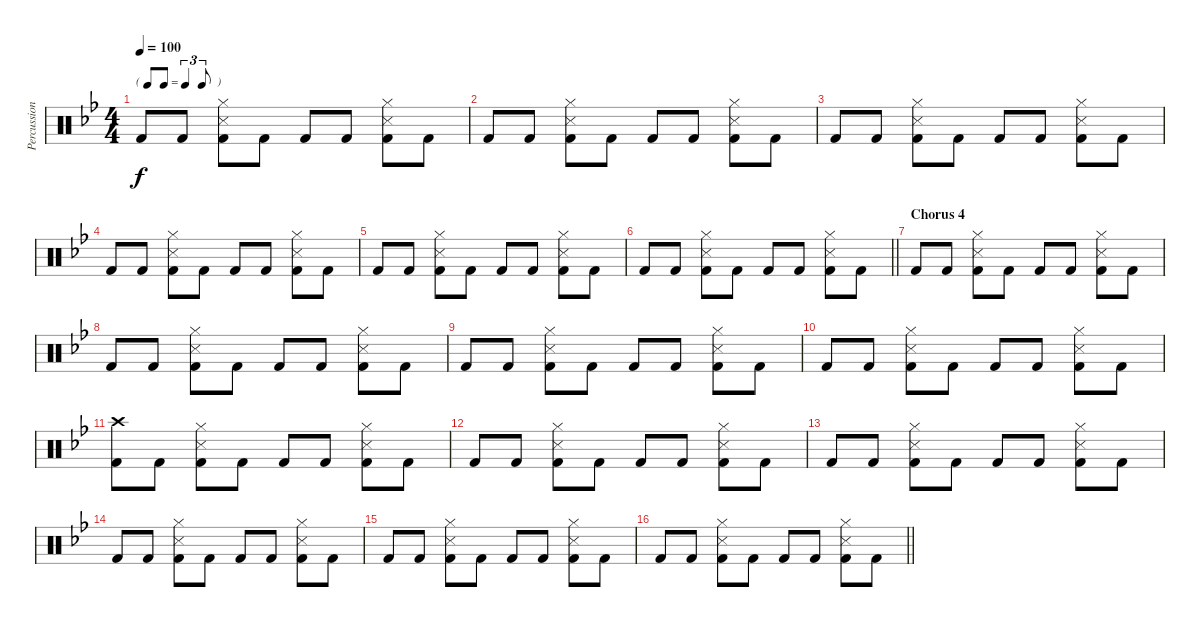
\track ("Percussion" "Percussion") {instrument percussion}
\staff {score}
\articulation defaults
\ts (4 4)
\tf triplet8th
\tempo 100
\clef neutral
\ks bb "Kick (hit) 2".8{dy f} "Kick (hit) 2".8
("Snare (side stick) 3" "Hi-Hat (closed)" "Kick (hit) 2").8 "Kick (hit) 2".8 "Kick (hit) 2".8 "Kick (hit) 2".8 ("Snare (side stick) 3" "Hi-Hat (closed)" "Kick (hit) 2").8 "Kick (hit) 2".8 |
"Kick (hit) 2".8 "Kick (hit) 2".8 ("Snare (side stick) 3" "Hi-Hat (closed)" "Kick (hit) 2").8 "Kick (hit) 2".8 "Kick (hit) 2".8 "Kick (hit) 2".8 ("Snare (side stick) 3" "Hi-Hat (closed)" "Kick (hit) 2").8 "Kick (hit) 2".8 |
"Kick (hit) 2".8 "Kick (hit) 2".8 ("Snare (side stick) 3" "Hi-Hat (closed)" "Kick (hit) 2").8 "Kick (hit) 2".8 "Kick (hit) 2".8 "Kick (hit) 2".8 ("Snare (side stick) 3" "Hi-Hat (closed)" "Kick (hit) 2").8 "Kick (hit) 2".8 |
"Kick (hit) 2".8 "Kick (hit) 2".8 ("Snare (side stick) 3" "Hi-Hat (closed)" "Kick (hit) 2").8 "Kick (hit) 2".8 "Kick (hit) 2".8 "Kick (hit) 2".8 ("Snare (side stick) 3" "Hi-Hat (closed)" "Kick (hit) 2").8 "Kick (hit) 2".8 |
"Kick (hit) 2".8 "Kick (hit) 2".8 ("Snare (side stick) 3" "Hi-Hat (closed)" "Kick (hit) 2").8 "Kick (hit) 2".8 "Kick (hit) 2".8 "Kick (hit) 2".8 ("Snare (side stick) 3" "Hi-Hat (closed)" "Kick (hit) 2").8 "Kick (hit) 2".8 |
\barLineRight lightlight "Kick (hit) 2".8 "Kick (hit) 2".8
("Snare (side stick) 3" "Hi-Hat (closed)" "Kick (hit) 2").8 "Kick (hit) 2".8 "Kick (hit) 2".8 "Kick (hit) 2".8 ("Snare (side stick) 3" "Hi-Hat (closed)" "Kick (hit) 2").8 "Kick (hit) 2".8 |
\section ("" "Chorus 4")
"Kick (hit) 2".8 "Kick (hit) 2".8 ("Snare (side stick) 3" "Hi-Hat (closed)" "Kick (hit) 2").8 "Kick (hit) 2".8 "Kick (hit) 2".8 "Kick (hit) 2".8 ("Snare (side stick) 3" "Hi-Hat (closed)" "Kick (hit) 2").8 "Kick (hit) 2".8 |
"Kick (hit) 2".8 "Kick (hit) 2".8 ("Snare (side stick) 3" "Hi-Hat (closed)" "Kick (hit) 2").8 "Kick (hit) 2".8 "Kick (hit) 2".8 "Kick (hit) 2".8 ("Snare (side stick) 3" "Hi-Hat (closed)" "Kick (hit) 2").8 "Kick (hit) 2".8 |
"Kick (hit) 2".8 "Kick (hit) 2".8 ("Snare (side stick) 3" "Hi-Hat (closed)" "Kick (hit) 2").8 "Kick (hit) 2".8 "Kick (hit) 2".8 "Kick (hit) 2".8 ("Snare (side stick) 3" "Hi-Hat (closed)" "Kick (hit) 2").8 "Kick (hit) 2".8 |
"Kick (hit) 2".8 "Kick (hit) 2".8 ("Snare (side stick) 3" "Hi-Hat (closed)" "Kick (hit) 2").8 "Kick (hit) 2".8 "Kick (hit) 2".8 "Kick (hit) 2".8 ("Snare (side stick) 3" "Hi-Hat (closed)" "Kick (hit) 2").8 "Kick (hit) 2".8 |
("Crash high (hit)" "Kick (hit) 2").8 "Kick (hit) 2".8 ("Snare (side stick) 3" "Hi-Hat (closed)" "Kick (hit) 2").8 "Kick (hit) 2".8 "Kick (hit) 2".8 "Kick (hit) 2".8 ("Snare (side stick) 3" "Hi-Hat (closed)" "Kick (hit) 2").8 "Kick (hit) 2".8 |
"Kick (hit) 2".8 "Kick (hit) 2".8 ("Snare (side stick) 3" "Hi-Hat (closed)" "Kick (hit) 2").8 "Kick (hit) 2".8 "Kick (hit) 2".8 "Kick (hit) 2".8 ("Snare (side stick) 3" "Hi-Hat (closed)" "Kick (hit) 2").8 "Kick (hit) 2".8 |
"Kick (hit) 2".8 "Kick (hit) 2".8 ("Snare (side stick) 3" "Hi-Hat (closed)" "Kick (hit) 2").8 "Kick (hit) 2".8 "Kick (hit) 2".8 "Kick (hit) 2".8 ("Snare (side stick) 3" "Hi-Hat (closed)" "Kick (hit) 2").8 "Kick (hit) 2".8 |
"Kick (hit) 2".8 "Kick (hit) 2".8 ("Snare (side stick) 3" "Hi-Hat (closed)" "Kick (hit) 2").8 "Kick (hit) 2".8 "Kick (hit) 2".8 "Kick (hit) 2".8 ("Snare (side stick) 3" "Hi-Hat (closed)" "Kick (hit) 2").8 "Kick (hit) 2".8 |
"Kick (hit) 2".8 "Kick (hit) 2".8 ("Snare (side stick) 3" "Hi-Hat (closed)" "Kick (hit) 2").8 "Kick (hit) 2".8 "Kick (hit) 2".8 "Kick (hit) 2".8 ("Snare (side stick) 3" "Hi-Hat (closed)" "Kick (hit) 2").8 "Kick (hit) 2".8 |
\barLineRight lightlight "Kick (hit) 2".8 "Kick (hit) 2".8
("Snare (side stick) 3" "Hi-Hat (closed)" "Kick (hit) 2").8 "Kick (hit) 2".8 "Kick (hit) 2".8 "Kick (hit) 2".8 ("Snare (side stick) 3" "Hi-Hat (closed)" "Kick (hit) 2").8 "Kick (hit) 2".8
